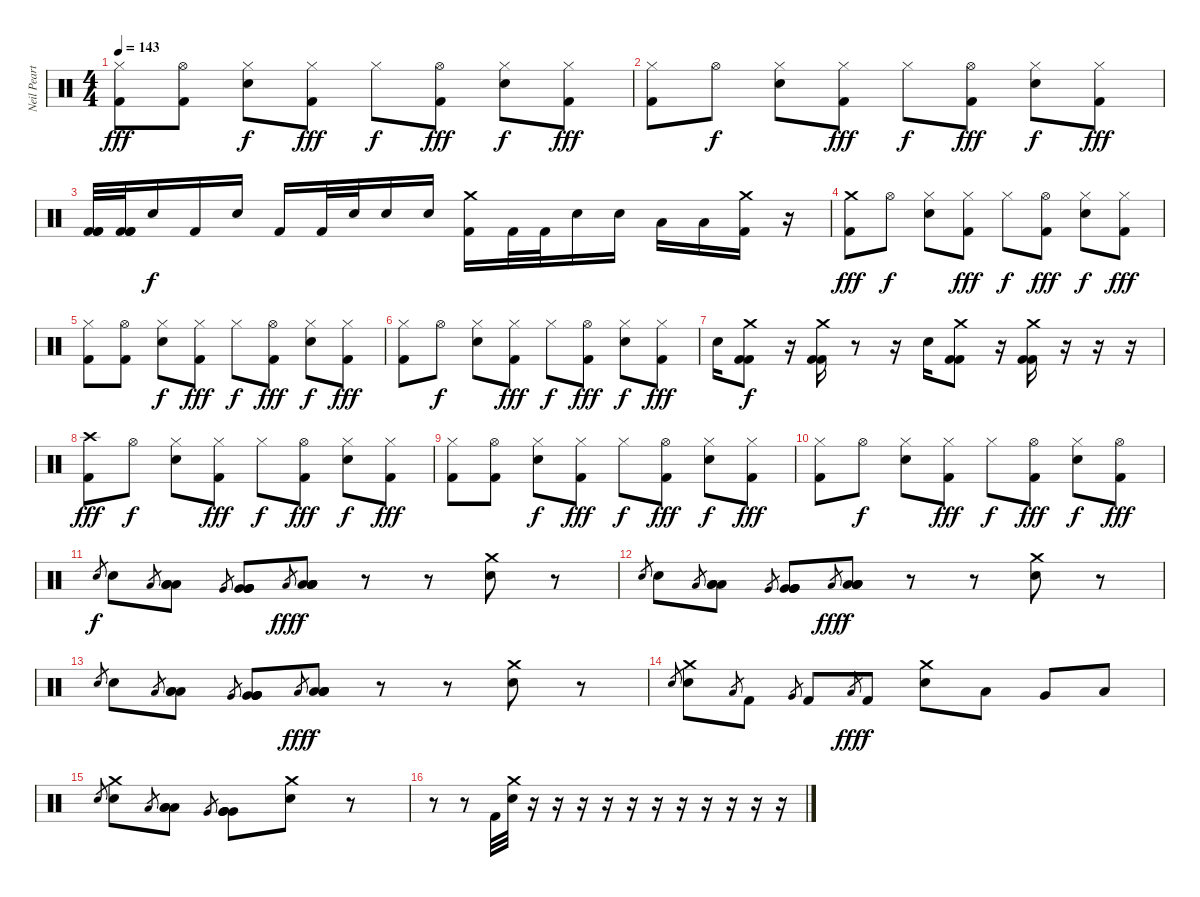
\track ("Neil Peart" "Neil Peart") {instrument percussion}
\staff {score}
\articulation defaults
\ts (4 4)
\tempo 143
\clef neutral
\ks c
("Kick (hit) 2" "Hi-Hat (closed)").8{dy fff} ("Kick (hit) 2" "Hi-Hat (open)").8 ("Electric Snare (hit)" "Hi-Hat (closed)").8{dy f} ("Kick (hit) 2" "Hi-Hat (closed)").8{dy fff} "Hi-Hat (closed)".8{dy f} ("Kick (hit) 2" "Hi-Hat (open)").8{dy fff} ("Electric Snare (hit)" "Hi-Hat (closed)").8{dy f} ("Kick (hit) 2" "Hi-Hat (closed)").8{dy fff} |
("Kick (hit) 2" "Hi-Hat (closed)").8 "Hi-Hat (open)".8{dy f} ("Electric Snare (hit)" "Hi-Hat (closed)").8 ("Kick (hit) 2" "Hi-Hat (closed)").8{dy fff} "Hi-Hat (closed)".8{dy f} ("Kick (hit) 2" "Hi-Hat (open)").8{dy fff} ("Electric Snare (hit)" "Hi-Hat (closed)").8{dy f} ("Kick (hit) 2" "Hi-Hat (closed)").8{dy fff} |
("Kick (hit) 2" "Kick (hit) 2" "Kick (hit) 2").32 ("Kick (hit) 2" "Kick (hit) 2" "Kick (hit) 2").32 "Electric Snare (hit)".16{dy f} "Kick (hit) 2".16 "Electric Snare (hit)".16 "Kick (hit) 2".16 "Kick (hit) 2".32 "Electric Snare (hit)".32 "Electric Snare (hit)".16 "Electric Snare (hit)".16 ("Kick (hit) 2" "Crash medium (hit)").16 "Kick (hit) 2".32 "Kick (hit) 2".32 "Electric Snare (hit)".16 "Electric Snare (hit)".16 "Low Tom (hit)".16 "Low Tom (hit)".16 ("Crash medium (hit)" "Kick (hit) 2").16 r.16 |
("Kick (hit) 2" "Crash medium (hit)").8{dy fff} "Hi-Hat (open)".8{dy f} ("Electric Snare (hit)" "Hi-Hat (closed)").8 ("Kick (hit) 2" "Hi-Hat (closed)").8{dy fff} "Hi-Hat (closed)".8{dy f} ("Kick (hit) 2" "Hi-Hat (open)").8{dy fff} ("Electric Snare (hit)" "Hi-Hat (closed)").8{dy f} ("Kick (hit) 2" "Hi-Hat (closed)").8{dy fff} |
("Kick (hit) 2" "Hi-Hat (closed)").8 ("Kick (hit) 2" "Hi-Hat (open)").8 ("Electric Snare (hit)" "Hi-Hat (closed)").8{dy f} ("Kick (hit) 2" "Hi-Hat (closed)").8{dy fff} "Hi-Hat (closed)".8{dy f} ("Kick (hit) 2" "Hi-Hat (open)").8{dy fff} ("Electric Snare (hit)" "Hi-Hat (closed)").8{dy f} ("Kick (hit) 2" "Hi-Hat (closed)").8{dy fff} |
("Kick (hit) 2" "Hi-Hat (closed)").8 "Hi-Hat (open)".8{dy f} ("Electric Snare (hit)" "Hi-Hat (closed)").8 ("Kick (hit) 2" "Hi-Hat (closed)").8{dy fff} "Hi-Hat (closed)".8{dy f} ("Kick (hit) 2" "Hi-Hat (open)").8{dy fff} ("Electric Snare (hit)" "Hi-Hat (closed)").8{dy f} ("Kick (hit) 2" "Hi-Hat (closed)").8{dy fff} |
"Electric Snare (hit)".16 ("Kick (hit) 2" "Kick (hit) 2" "Crash medium (hit)").8{dy f} r.16 ("Kick (hit) 2" "Kick (hit) 2" "Crash medium (hit)").16 r.8 r.16 "Electric Snare (hit)".16 ("Kick (hit) 2" "Kick (hit) 2" "Crash medium (hit)").8 r.16 ("Kick (hit) 2" "Kick (hit) 2" "Crash medium (hit)").16 r.16 r.16 r.16 |
("Kick (hit) 2" "Crash high (hit)").8{dy fff} "Hi-Hat (open)".8{dy f} ("Electric Snare (hit)" "Hi-Hat (closed)").8 ("Kick (hit) 2" "Hi-Hat (closed)").8{dy fff} "Hi-Hat (closed)".8{dy f} ("Kick (hit) 2" "Hi-Hat (open)").8{dy fff} ("Electric Snare (hit)" "Hi-Hat (closed)").8{dy f} ("Kick (hit) 2" "Hi-Hat (closed)").8{dy fff} |
("Kick (hit) 2" "Hi-Hat (closed)").8 ("Kick (hit) 2" "Hi-Hat (open)").8 ("Electric Snare (hit)" "Hi-Hat (closed)").8{dy f} ("Kick (hit) 2" "Hi-Hat (closed)").8{dy fff} "Hi-Hat (closed)".8{dy f} ("Kick (hit) 2" "Hi-Hat (open)").8{dy fff} ("Electric Snare (hit)" "Hi-Hat (closed)").8{dy f} ("Kick (hit) 2" "Hi-Hat (closed)").8{dy fff} |
("Kick (hit) 2" "Hi-Hat (closed)").8 "Hi-Hat (open)".8{dy f} ("Electric Snare (hit)" "Hi-Hat (closed)").8 ("Kick (hit) 2" "Hi-Hat (closed)").8{dy fff} "Hi-Hat (closed)".8{dy f} ("Kick (hit) 2" "Hi-Hat (open)").8{dy fff} ("Electric Snare (hit)" "Hi-Hat (closed)").8{dy f} ("Kick (hit) 2" "Hi-Hat (open)").8{dy fff} |
"Electric Snare (hit)".8{gr dy f} "Electric Snare (hit)".8 "Low Tom (hit)".8{gr} ("Low Tom (hit)" "Low Tom (hit)" "Low Tom (hit)").8 "Very Low Tom (hit)".8{gr} ("Very Low Tom (hit)" "Very Low Tom (hit)" "Very Low Tom (hit)" "Very Low Tom (hit)").8 "Low Floor Tom (hit)".8{gr dy fff} ("Low Floor Tom (hit)" "Low Floor Tom (hit)" "Low Floor Tom (hit)" "Low Floor Tom (hit)").8{dy f} r.8 r.8 ("Crash medium (hit)" "Electric Snare (hit)").8 r.8 |
"Electric Snare (hit)".8{gr} "Electric Snare (hit)".8 "Low Tom (hit)".8{gr} ("Low Tom (hit)" "Low Tom (hit)" "Low Tom (hit)").8 "Very Low Tom (hit)".8{gr} ("Very Low Tom (hit)" "Very Low Tom (hit)" "Very Low Tom (hit)" "Very Low Tom (hit)").8 "Low Floor Tom (hit)".8{gr dy fff} ("Low Floor Tom (hit)" "Low Floor Tom (hit)" "Low Floor Tom (hit)" "Low Floor Tom (hit)").8{dy f} r.8 r.8 ("Crash medium (hit)" "Electric Snare (hit)").8 r.8 |
"Electric Snare (hit)".8{gr} "Electric Snare (hit)".8 "Low Tom (hit)".8{gr} ("Low Tom (hit)" "Low Tom (hit)" "Low Tom (hit)").8 "Very Low Tom (hit)".8{gr} ("Very Low Tom (hit)" "Very Low Tom (hit)" "Very Low Tom (hit)" "Very Low Tom (hit)").8 "Low Floor Tom (hit)".8{gr dy fff} ("Low Floor Tom (hit)" "Low Floor Tom (hit)" "Low Floor Tom (hit)" "Low Floor Tom (hit)").8{dy f} r.8 r.8 ("Crash medium (hit)" "Electric Snare (hit)").8 r.8 |
"Electric Snare (hit)".8{gr} ("Electric Snare (hit)" "Crash medium (hit)").8 "Low Tom (hit)".8{gr} "Kick (hit) 2".8 "Very Low Tom (hit)".8{gr} "Kick (hit) 2".8 "Low Floor Tom (hit)".8{gr dy fff} "Kick (hit) 2".8{dy f} ("Electric Snare (hit)" "Crash medium (hit)").8 "Low Tom (hit)".8 "Very Low Tom (hit)".8 "Low Floor Tom (hit)".8 |
"Electric Snare (hit)".8{gr} ("Electric Snare (hit)" "Crash medium (hit)").8 "Low Tom (hit)".8{gr} ("Low Tom (hit)" "Low Tom (hit)" "Low Tom (hit)").8 "Very Low Tom (hit)".8{gr} ("Very Low Tom (hit)" "Very Low Tom (hit)" "Very Low Tom (hit)" "Very Low Tom (hit)").8 ("Crash medium (hit)" "Electric Snare (hit)").8 r.8 |
r.8 r.8 "Kick (hit) 2".32 ("Electric Snare (hit)" "Crash medium (hit)").32 r.16 r.16 r.16 r.16 r.16 r.16 r.16 r.16 r.16 r.16 r.16
